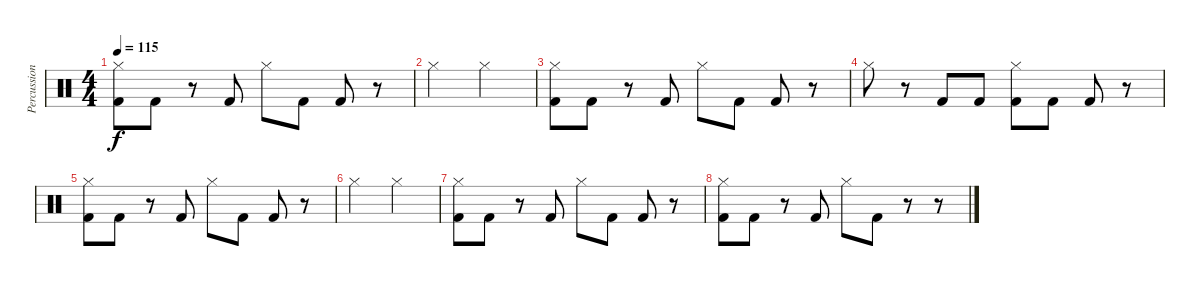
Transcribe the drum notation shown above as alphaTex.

\track ("Percussions" "Percussion") {instrument percussion}
\staff {score}
\articulation defaults
\ts (4 4)
\tempo 115
\clef neutral
\ks c
("Hi-Hat (closed)" "Kick (hit) 2").8{dy f} "Kick (hit) 2".8 r.8 "Kick (hit) 2".8 "Hi-Hat (closed)".8 "Kick (hit) 2".8 "Kick (hit) 2".8 r.8 |
"Hi-Hat (closed)".2 "Hi-Hat (closed)".2 |
("Hi-Hat (closed)" "Kick (hit) 2").8 "Kick (hit) 2".8 r.8 "Kick (hit) 2".8 "Hi-Hat (closed)".8 "Kick (hit) 2".8 "Kick (hit) 2".8 r.8 |
"Hi-Hat (closed)".8 r.8 "Kick (hit) 2".8 "Kick (hit) 2".8 ("Hi-Hat (closed)" "Kick (hit) 2").8 "Kick (hit) 2".8 "Kick (hit) 2".8 r.8 |
("Hi-Hat (closed)" "Kick (hit) 2").8 "Kick (hit) 2".8 r.8 "Kick (hit) 2".8 "Hi-Hat (closed)".8 "Kick (hit) 2".8 "Kick (hit) 2".8 r.8 |
"Hi-Hat (closed)".2 "Hi-Hat (closed)".2 |
("Hi-Hat (closed)" "Kick (hit) 2").8 "Kick (hit) 2".8 r.8 "Kick (hit) 2".8 "Hi-Hat (closed)".8 "Kick (hit) 2".8 "Kick (hit) 2".8 r.8 |
("Hi-Hat (closed)" "Kick (hit) 2").8 "Kick (hit) 2".8 r.8 "Kick (hit) 2".8 "Hi-Hat (closed)".8 "Kick (hit) 2".8 r.8 r.8
